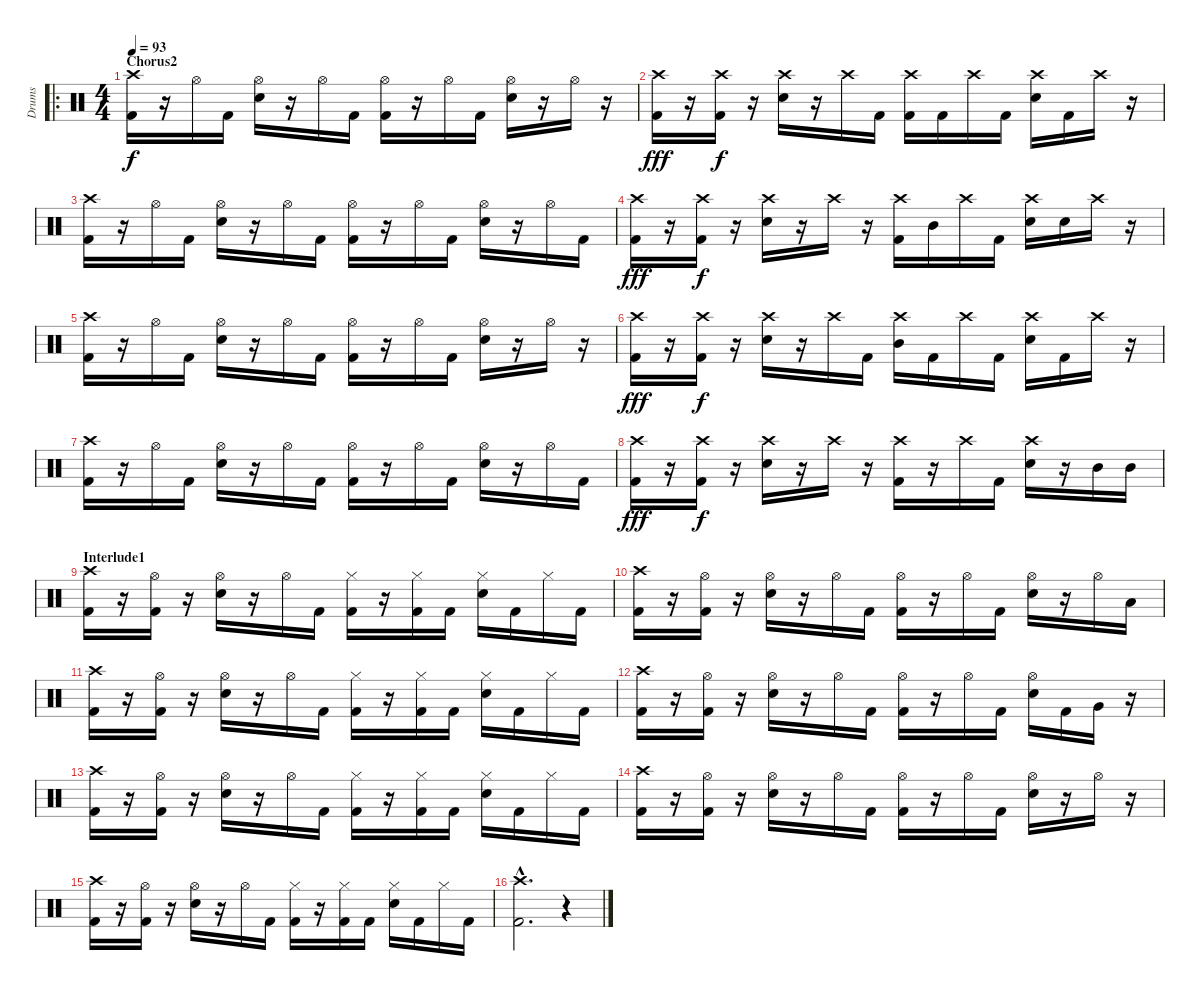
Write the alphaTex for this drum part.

\track ("Drums" "Drums") {instrument percussion}
\staff {score}
\articulation defaults
\ro
\ts (4 4)
\section ("" "Chorus2")
\tempo 93
\clef neutral
\ks c
("Crash high (hit)" "Kick (hit) 2").16{dy f} r.16 "Hi-Hat (open)".16 "Kick (hit) 2".16 ("Hi-Hat (open)" "Snare (hit) 2").16 r.16 "Hi-Hat (open)".16 "Kick (hit) 2".16 ("Hi-Hat (open)" "Kick (hit) 2").16 r.16 "Hi-Hat (open)".16 "Kick (hit) 2".16 ("Hi-Hat (open)" "Snare (hit) 2").16 r.16 "Hi-Hat (open)".16 r.16 |
("Crash high (hit)" "Kick (hit) 2").16{dy fff} r.16 ("Crash high (hit)" "Kick (hit) 2").16{dy f} r.16 ("Crash high (hit)" "Snare (hit) 2").16 r.16 "Crash high (hit)".16 "Kick (hit) 2".16 ("Crash high (hit)" "Kick (hit) 2").16 "Kick (hit) 2".16 "Crash high (hit)".16 "Kick (hit) 2".16 ("Crash high (hit)" "Snare (hit) 2").16 "Kick (hit) 2".16 "Crash high (hit)".16 r.16 |
("Crash high (hit)" "Kick (hit) 2").16 r.16 "Hi-Hat (open)".16 "Kick (hit) 2".16 ("Hi-Hat (open)" "Snare (hit) 2").16 r.16 "Hi-Hat (open)".16 "Kick (hit) 2".16 ("Hi-Hat (open)" "Kick (hit) 2").16 r.16 "Hi-Hat (open)".16 "Kick (hit) 2".16 ("Hi-Hat (open)" "Snare (hit) 2").16 r.16 "Hi-Hat (open)".16 "Kick (hit) 2".16 |
("Crash high (hit)" "Kick (hit) 2").16{dy fff} r.16 ("Crash high (hit)" "Kick (hit) 2").16{dy f} r.16 ("Crash high (hit)" "Snare (hit) 2").16 r.16 "Crash high (hit)".16 r.16 ("Crash high (hit)" "Kick (hit) 2").16 "Mid Tom (hit)".16 "Crash high (hit)".16 "Kick (hit) 2".16 ("Crash high (hit)" "Snare (hit) 2").16 "Snare (hit) 2".16 "Crash high (hit)".16 r.16 |
("Crash high (hit)" "Kick (hit) 2").16 r.16 "Hi-Hat (open)".16 "Kick (hit) 2".16 ("Hi-Hat (open)" "Snare (hit) 2").16 r.16 "Hi-Hat (open)".16 "Kick (hit) 2".16 ("Hi-Hat (open)" "Kick (hit) 2").16 r.16 "Hi-Hat (open)".16 "Kick (hit) 2".16 ("Hi-Hat (open)" "Snare (hit) 2").16 r.16 "Hi-Hat (open)".16 r.16 |
("Crash high (hit)" "Kick (hit) 2").16{dy fff} r.16 ("Crash high (hit)" "Kick (hit) 2").16{dy f} r.16 ("Crash high (hit)" "Snare (hit) 2").16 r.16 "Crash high (hit)".16 "Kick (hit) 2".16 ("Crash high (hit)" "Mid Tom (hit)").16 "Kick (hit) 2".16 "Crash high (hit)".16 "Kick (hit) 2".16 ("Crash high (hit)" "Snare (hit) 2").16 "Kick (hit) 2".16 "Crash high (hit)".16 r.16 |
("Crash high (hit)" "Kick (hit) 2").16 r.16 "Hi-Hat (open)".16 "Kick (hit) 2".16 ("Hi-Hat (open)" "Snare (hit) 2").16 r.16 "Hi-Hat (open)".16 "Kick (hit) 2".16 ("Hi-Hat (open)" "Kick (hit) 2").16 r.16 "Hi-Hat (open)".16 "Kick (hit) 2".16 ("Hi-Hat (open)" "Snare (hit) 2").16 r.16 "Hi-Hat (open)".16 "Kick (hit) 2".16 |
("Crash high (hit)" "Kick (hit) 2").16{dy fff} r.16 ("Crash high (hit)" "Kick (hit) 2").16{dy f} r.16 ("Crash high (hit)" "Snare (hit) 2").16 r.16 "Crash high (hit)".16 r.16 ("Crash high (hit)" "Kick (hit) 2").16 r.16 "Crash high (hit)".16 "Kick (hit) 2".16 ("Crash high (hit)" "Snare (hit) 2").16 r.16 "Mid Tom (hit)".16 "Mid Tom (hit)".16 |
\section ("" "Interlude1")
("Crash high (hit)" "Kick (hit) 2").16 r.16 ("Hi-Hat (open)" "Kick (hit) 2").16 r.16 ("Hi-Hat (open)" "Snare (hit) 2").16 r.16 "Hi-Hat (open)".16 "Kick (hit) 2".16 ("Hi-Hat (closed)" "Kick (hit) 2").16 r.16 ("Hi-Hat (closed)" "Kick (hit) 2").16 "Kick (hit) 2".16 ("Hi-Hat (closed)" "Snare (hit) 2").16 "Kick (hit) 2".16 "Hi-Hat (closed)".16 "Kick (hit) 2".16 |
("Crash high (hit)" "Kick (hit) 2").16 r.16 ("Hi-Hat (open)" "Kick (hit) 2").16 r.16 ("Hi-Hat (open)" "Snare (hit) 2").16 r.16 "Hi-Hat (open)".16 "Kick (hit) 2".16 ("Hi-Hat (open)" "Kick (hit) 2").16 r.16 "Hi-Hat (open)".16 "Kick (hit) 2".16 ("Hi-Hat (open)" "Snare (hit) 2").16 r.16 "Hi-Hat (open)".16 "Low Tom (hit)".16 |
("Crash high (hit)" "Kick (hit) 2").16 r.16 ("Hi-Hat (open)" "Kick (hit) 2").16 r.16 ("Hi-Hat (open)" "Snare (hit) 2").16 r.16 "Hi-Hat (open)".16 "Kick (hit) 2".16 ("Hi-Hat (closed)" "Kick (hit) 2").16 r.16 ("Hi-Hat (closed)" "Kick (hit) 2").16 "Kick (hit) 2".16 ("Hi-Hat (closed)" "Snare (hit) 2").16 "Kick (hit) 2".16 "Hi-Hat (closed)".16 "Kick (hit) 2".16 |
("Crash high (hit)" "Kick (hit) 2").16 r.16 ("Hi-Hat (open)" "Kick (hit) 2").16 r.16 ("Hi-Hat (open)" "Snare (hit) 2").16 r.16 "Hi-Hat (open)".16 "Kick (hit) 2".16 ("Hi-Hat (open)" "Kick (hit) 2").16 r.16 "Hi-Hat (open)".16 "Kick (hit) 2".16 ("Hi-Hat (open)" "Snare (hit) 2").16 "Kick (hit) 2".16 "Very Low Tom (hit)".16 r.16 |
("Crash high (hit)" "Kick (hit) 2").16 r.16 ("Hi-Hat (open)" "Kick (hit) 2").16 r.16 ("Hi-Hat (open)" "Snare (hit) 2").16 r.16 "Hi-Hat (open)".16 "Kick (hit) 2".16 ("Hi-Hat (closed)" "Kick (hit) 2").16 r.16 ("Hi-Hat (closed)" "Kick (hit) 2").16 "Kick (hit) 2".16 ("Hi-Hat (closed)" "Snare (hit) 2").16 "Kick (hit) 2".16 "Hi-Hat (closed)".16 "Kick (hit) 2".16 |
("Crash high (hit)" "Kick (hit) 2").16 r.16 ("Hi-Hat (open)" "Kick (hit) 2").16 r.16 ("Hi-Hat (open)" "Snare (hit) 2").16 r.16 "Hi-Hat (open)".16 "Kick (hit) 2".16 ("Hi-Hat (open)" "Kick (hit) 2").16 r.16 "Hi-Hat (open)".16 "Kick (hit) 2".16 ("Hi-Hat (open)" "Snare (hit) 2").16 r.16 "Hi-Hat (open)".16 r.16 |
("Crash high (hit)" "Kick (hit) 2").16 r.16 ("Hi-Hat (open)" "Kick (hit) 2").16 r.16 ("Hi-Hat (open)" "Snare (hit) 2").16 r.16 "Hi-Hat (open)".16 "Kick (hit) 2".16 ("Hi-Hat (closed)" "Kick (hit) 2").16 r.16 ("Hi-Hat (closed)" "Kick (hit) 2").16 "Kick (hit) 2".16 ("Hi-Hat (closed)" "Snare (hit) 2").16 "Kick (hit) 2".16 "Hi-Hat (closed)".16 "Kick (hit) 2".16 |
("Crash high (hit)"{hac} "Kick (hit) 2"{hac}).2{d} r.4
